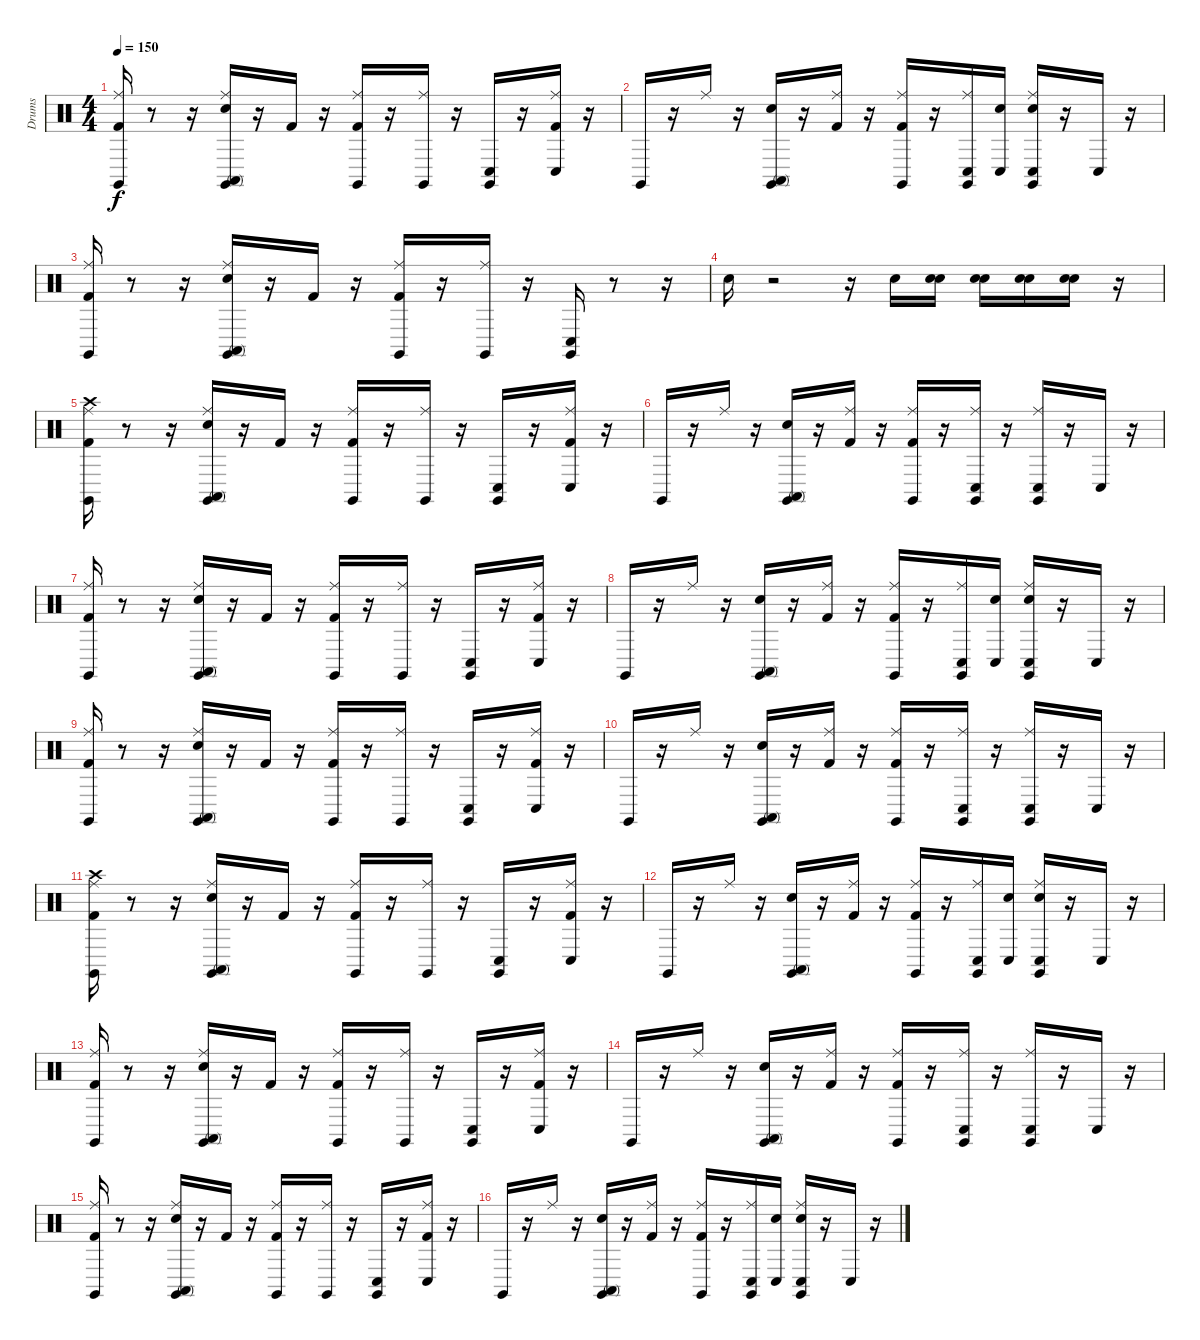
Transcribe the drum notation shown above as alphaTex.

\track ("Drums" "Drums") {instrument percussion}
\staff {score}
\articulation defaults
\ts (4 4)
\tempo 150
\clef neutral
\ks c
("Kick (hit) 2" "Ride (middle)" "Claves (hit)").16{dy f} r.8 r.16 ("Snare (hit) 2" "Ride (middle)" "Conga high (mute)" "Claves (hit)").16 r.16 "Kick (hit) 2".16 r.16 ("Kick (hit) 2" "Ride (middle)" "Claves (hit)").16 r.16 ("Ride (middle)" "Claves (hit)").16 r.16 ("Conga low (hit)" "Claves (hit)").16 r.16 ("Kick (hit) 2" "Ride (middle)" "Conga low (hit)").16 r.16 |
"Claves (hit)".16 r.16 "Ride (middle)".16 r.16 ("Snare (hit) 2" "Conga high (mute)" "Claves (hit)").16 r.16 ("Kick (hit) 2" "Ride (middle)").16 r.16 ("Kick (hit) 2" "Ride (middle)" "Claves (hit)").16 r.16 ("Ride (middle)" "Conga low (hit)" "Claves (hit)").16 ("Snare (hit)" "Conga low (hit)").16 ("Snare (hit)" "Ride (middle)" "Conga low (hit)" "Claves (hit)").16 r.16 "Conga low (hit)".16 r.16 |
("Kick (hit) 2" "Ride (middle)" "Claves (hit)").16 r.8 r.16 ("Snare (hit) 2" "Ride (middle)" "Conga high (mute)" "Claves (hit)").16 r.16 "Kick (hit) 2".16 r.16 ("Kick (hit) 2" "Ride (middle)" "Claves (hit)").16 r.16 ("Ride (middle)" "Claves (hit)").16 r.16 ("Conga low (hit)" "Claves (hit)").16 r.8 r.16 |
"Snare (hit) 2".16 r.2 r.16 "Snare (hit) 2".16 ("Snare (hit)" "Snare (hit) 2").16 ("Snare (hit)" "Snare (hit) 2").16 ("Snare (hit)" "Snare (hit) 2").16 ("Snare (hit)" "Snare (hit) 2").16 r.16 |
("Kick (hit) 2" "Crash high (hit)" "Ride (middle)" "Claves (hit)").16 r.8 r.16 ("Snare (hit) 2" "Ride (middle)" "Conga high (mute)" "Claves (hit)").16 r.16 "Kick (hit) 2".16 r.16 ("Kick (hit) 2" "Ride (middle)" "Claves (hit)").16 r.16 ("Ride (middle)" "Claves (hit)").16 r.16 ("Conga low (hit)" "Claves (hit)").16 r.16 ("Kick (hit) 2" "Ride (middle)" "Conga low (hit)").16 r.16 |
"Claves (hit)".16 r.16 "Ride (middle)".16 r.16 ("Snare (hit) 2" "Conga high (mute)" "Claves (hit)").16 r.16 ("Kick (hit) 2" "Ride (middle)").16 r.16 ("Kick (hit) 2" "Ride (middle)" "Claves (hit)").16 r.16 ("Ride (middle)" "Conga low (hit)" "Claves (hit)").16 r.16 ("Ride (middle)" "Conga low (hit)" "Claves (hit)").16 r.16 "Conga low (hit)".16 r.16 |
("Kick (hit) 2" "Ride (middle)" "Claves (hit)").16 r.8 r.16 ("Snare (hit) 2" "Ride (middle)" "Conga high (mute)" "Claves (hit)").16 r.16 "Kick (hit) 2".16 r.16 ("Kick (hit) 2" "Ride (middle)" "Claves (hit)").16 r.16 ("Ride (middle)" "Claves (hit)").16 r.16 ("Conga low (hit)" "Claves (hit)").16 r.16 ("Kick (hit) 2" "Ride (middle)" "Conga low (hit)").16 r.16 |
"Claves (hit)".16 r.16 "Ride (middle)".16 r.16 ("Snare (hit) 2" "Conga high (mute)" "Claves (hit)").16 r.16 ("Kick (hit) 2" "Ride (middle)").16 r.16 ("Kick (hit) 2" "Ride (middle)" "Claves (hit)").16 r.16 ("Ride (middle)" "Conga low (hit)" "Claves (hit)").16 ("Snare (hit)" "Conga low (hit)").16 ("Snare (hit)" "Ride (middle)" "Conga low (hit)" "Claves (hit)").16 r.16 "Conga low (hit)".16 r.16 |
("Kick (hit) 2" "Ride (middle)" "Claves (hit)").16 r.8 r.16 ("Snare (hit) 2" "Ride (middle)" "Conga high (mute)" "Claves (hit)").16 r.16 "Kick (hit) 2".16 r.16 ("Kick (hit) 2" "Ride (middle)" "Claves (hit)").16 r.16 ("Ride (middle)" "Claves (hit)").16 r.16 ("Conga low (hit)" "Claves (hit)").16 r.16 ("Kick (hit) 2" "Ride (middle)" "Conga low (hit)").16 r.16 |
"Claves (hit)".16 r.16 "Ride (middle)".16 r.16 ("Snare (hit) 2" "Conga high (mute)" "Claves (hit)").16 r.16 ("Kick (hit) 2" "Ride (middle)").16 r.16 ("Kick (hit) 2" "Ride (middle)" "Claves (hit)").16 r.16 ("Ride (middle)" "Conga low (hit)" "Claves (hit)").16 r.16 ("Ride (middle)" "Conga low (hit)" "Claves (hit)").16 r.16 "Conga low (hit)".16 r.16 |
("Kick (hit) 2" "Crash high (hit)" "Ride (middle)" "Claves (hit)").16 r.8 r.16 ("Snare (hit) 2" "Ride (middle)" "Conga high (mute)" "Claves (hit)").16 r.16 "Kick (hit) 2".16 r.16 ("Kick (hit) 2" "Ride (middle)" "Claves (hit)").16 r.16 ("Ride (middle)" "Claves (hit)").16 r.16 ("Conga low (hit)" "Claves (hit)").16 r.16 ("Kick (hit) 2" "Ride (middle)" "Conga low (hit)").16 r.16 |
"Claves (hit)".16 r.16 "Ride (middle)".16 r.16 ("Snare (hit) 2" "Conga high (mute)" "Claves (hit)").16 r.16 ("Kick (hit) 2" "Ride (middle)").16 r.16 ("Kick (hit) 2" "Ride (middle)" "Claves (hit)").16 r.16 ("Ride (middle)" "Conga low (hit)" "Claves (hit)").16 ("Snare (hit)" "Conga low (hit)").16 ("Snare (hit)" "Ride (middle)" "Conga low (hit)" "Claves (hit)").16 r.16 "Conga low (hit)".16 r.16 |
("Kick (hit) 2" "Ride (middle)" "Claves (hit)").16 r.8 r.16 ("Snare (hit) 2" "Ride (middle)" "Conga high (mute)" "Claves (hit)").16 r.16 "Kick (hit) 2".16 r.16 ("Kick (hit) 2" "Ride (middle)" "Claves (hit)").16 r.16 ("Ride (middle)" "Claves (hit)").16 r.16 ("Conga low (hit)" "Claves (hit)").16 r.16 ("Kick (hit) 2" "Ride (middle)" "Conga low (hit)").16 r.16 |
"Claves (hit)".16 r.16 "Ride (middle)".16 r.16 ("Snare (hit) 2" "Conga high (mute)" "Claves (hit)").16 r.16 ("Kick (hit) 2" "Ride (middle)").16 r.16 ("Kick (hit) 2" "Ride (middle)" "Claves (hit)").16 r.16 ("Ride (middle)" "Conga low (hit)" "Claves (hit)").16 r.16 ("Ride (middle)" "Conga low (hit)" "Claves (hit)").16 r.16 "Conga low (hit)".16 r.16 |
("Kick (hit) 2" "Ride (middle)" "Claves (hit)").16 r.8 r.16 ("Snare (hit) 2" "Ride (middle)" "Conga high (mute)" "Claves (hit)").16 r.16 "Kick (hit) 2".16 r.16 ("Kick (hit) 2" "Ride (middle)" "Claves (hit)").16 r.16 ("Ride (middle)" "Claves (hit)").16 r.16 ("Conga low (hit)" "Claves (hit)").16 r.16 ("Kick (hit) 2" "Ride (middle)" "Conga low (hit)").16 r.16 |
"Claves (hit)".16 r.16 "Ride (middle)".16 r.16 ("Snare (hit) 2" "Conga high (mute)" "Claves (hit)").16 r.16 ("Kick (hit) 2" "Ride (middle)").16 r.16 ("Kick (hit) 2" "Ride (middle)" "Claves (hit)").16 r.16 ("Ride (middle)" "Conga low (hit)" "Claves (hit)").16 ("Snare (hit)" "Conga low (hit)").16 ("Snare (hit)" "Ride (middle)" "Conga low (hit)" "Claves (hit)").16 r.16 "Conga low (hit)".16 r.16
